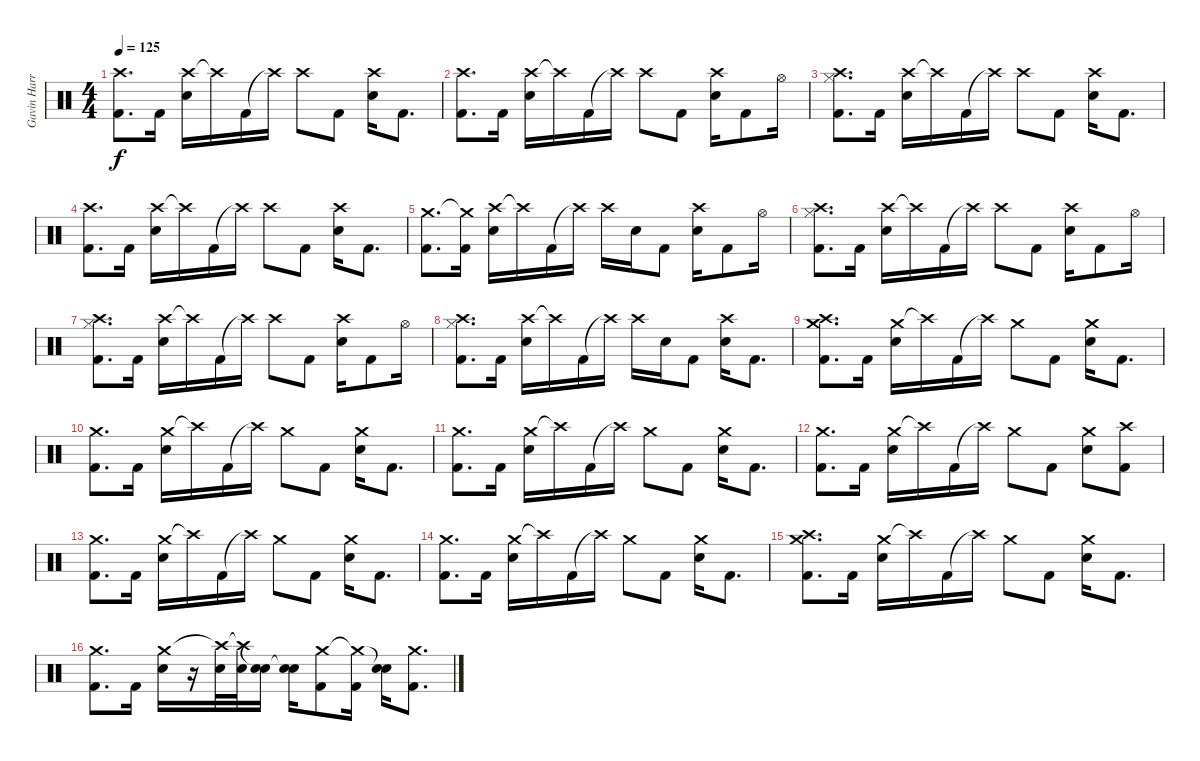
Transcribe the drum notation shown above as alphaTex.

\track ("Gavin Harrison" "Gavin Harr") {instrument percussion}
\staff {score}
\articulation defaults
\ts (4 4)
\tempo 125
\clef neutral
\ks c
("Crash high (hit)" "Kick (hit) 2").8{d dy f} "Kick (hit) 2".16 ("Crash high (hit)" "Electric Snare (hit)").16 "Crash high (hit)"{t}.16 "Kick (hit) 2".16 "Crash high (hit)"{t}.16 "Crash high (hit)".8 "Kick (hit) 2".8 ("Crash high (hit)" "Electric Snare (hit)").16 "Kick (hit) 2".8{d} |
("Crash high (hit)" "Kick (hit) 2").8{d} "Kick (hit) 2".16 ("Crash high (hit)" "Electric Snare (hit)").16 "Crash high (hit)"{t}.16 "Kick (hit) 2".16 "Crash high (hit)"{t}.16 "Crash high (hit)".8 "Kick (hit) 2".8 ("Crash high (hit)" "Electric Snare (hit)").16 "Kick (hit) 2".8 "Hi-Hat (open)".16 |
("Crash high (hit)" "Hi-Hat (closed)" "Kick (hit) 2").8{d} "Kick (hit) 2".16 ("Crash high (hit)" "Electric Snare (hit)").16 "Crash high (hit)"{t}.16 "Kick (hit) 2".16 "Crash high (hit)"{t}.16 "Crash high (hit)".8 "Kick (hit) 2".8 ("Crash high (hit)" "Electric Snare (hit)").16 "Kick (hit) 2".8{d} |
("Crash high (hit)" "Kick (hit) 2").8{d} "Kick (hit) 2".16 ("Crash high (hit)" "Electric Snare (hit)").16 "Crash high (hit)"{t}.16 "Kick (hit) 2".16 "Crash high (hit)"{t}.16 "Crash high (hit)".8 "Kick (hit) 2".8 ("Crash high (hit)" "Electric Snare (hit)").16 "Kick (hit) 2".8{d} |
("Crash medium (hit)" "Kick (hit) 2").8{d} ("Crash medium (hit)"{t} "Kick (hit) 2").16 ("Crash high (hit)" "Electric Snare (hit)").16 "Crash high (hit)"{t}.16 "Kick (hit) 2".16 "Crash high (hit)"{t}.16 "Crash high (hit)".16 "Electric Snare (hit)".16 "Kick (hit) 2".8 ("Crash high (hit)" "Electric Snare (hit)").16 "Kick (hit) 2".8 "Hi-Hat (open)".16 |
("Crash high (hit)" "Hi-Hat (closed)" "Kick (hit) 2").8{d} "Kick (hit) 2".16 ("Crash high (hit)" "Electric Snare (hit)").16 "Crash high (hit)"{t}.16 "Kick (hit) 2".16 "Crash high (hit)"{t}.16 "Crash high (hit)".8 "Kick (hit) 2".8 ("Crash high (hit)" "Electric Snare (hit)").16 "Kick (hit) 2".8 "Hi-Hat (open)".16 |
("Crash high (hit)" "Hi-Hat (closed)" "Kick (hit) 2").8{d} "Kick (hit) 2".16 ("Crash high (hit)" "Electric Snare (hit)").16 "Crash high (hit)"{t}.16 "Kick (hit) 2".16 "Crash high (hit)"{t}.16 "Crash high (hit)".8 "Kick (hit) 2".8 ("Crash high (hit)" "Electric Snare (hit)").16 "Kick (hit) 2".8 "Hi-Hat (open)".16 |
("Crash high (hit)" "Hi-Hat (closed)" "Kick (hit) 2").8{d} "Kick (hit) 2".16 ("Crash high (hit)" "Electric Snare (hit)").16 "Crash high (hit)"{t}.16 "Kick (hit) 2".16 "Crash high (hit)"{t}.16 "Crash high (hit)".16 "Electric Snare (hit)".16 "Kick (hit) 2".8 ("Crash high (hit)" "Electric Snare (hit)").16 "Kick (hit) 2".8{d} |
("Crash medium (hit)" "Crash high (hit)" "Kick (hit) 2").8{d} "Kick (hit) 2".16 ("Crash medium (hit)" "Electric Snare (hit)").16 "Crash high (hit)"{t}.16 "Kick (hit) 2".16 "Crash high (hit)"{t}.16 "Crash medium (hit)".8 "Kick (hit) 2".8 ("Crash medium (hit)" "Electric Snare (hit)").16 "Kick (hit) 2".8{d} |
("Crash medium (hit)" "Kick (hit) 2").8{d} "Kick (hit) 2".16 ("Crash medium (hit)" "Electric Snare (hit)").16 "Crash high (hit)"{t}.16 "Kick (hit) 2".16 "Crash high (hit)"{t}.16 "Crash medium (hit)".8 "Kick (hit) 2".8 ("Crash medium (hit)" "Electric Snare (hit)").16 "Kick (hit) 2".8{d} |
("Crash medium (hit)" "Kick (hit) 2").8{d} "Kick (hit) 2".16 ("Crash medium (hit)" "Electric Snare (hit)").16 "Crash high (hit)"{t}.16 "Kick (hit) 2".16 "Crash high (hit)"{t}.16 "Crash medium (hit)".8 "Kick (hit) 2".8 ("Crash medium (hit)" "Electric Snare (hit)").16 "Kick (hit) 2".8{d} |
("Crash medium (hit)" "Kick (hit) 2").8{d} "Kick (hit) 2".16 ("Crash medium (hit)" "Electric Snare (hit)").16 "Crash high (hit)"{t}.16 "Kick (hit) 2".16 "Crash high (hit)"{t}.16 "Crash medium (hit)".8 "Kick (hit) 2".8 ("Crash medium (hit)" "Electric Snare (hit)").8 ("Crash high (hit)" "Kick (hit) 2").8 |
("Crash medium (hit)" "Kick (hit) 2").8{d} "Kick (hit) 2".16 ("Crash medium (hit)" "Electric Snare (hit)").16 "Crash high (hit)"{t}.16 "Kick (hit) 2".16 "Crash high (hit)"{t}.16 "Crash medium (hit)".8 "Kick (hit) 2".8 ("Crash medium (hit)" "Electric Snare (hit)").16 "Kick (hit) 2".8{d} |
("Crash medium (hit)" "Kick (hit) 2").8{d} "Kick (hit) 2".16 ("Crash medium (hit)" "Electric Snare (hit)").16 "Crash high (hit)"{t}.16 "Kick (hit) 2".16 "Crash high (hit)"{t}.16 "Crash medium (hit)".8 "Kick (hit) 2".8 ("Crash medium (hit)" "Electric Snare (hit)").16 "Kick (hit) 2".8{d} |
("Crash high (hit)" "Crash medium (hit)" "Kick (hit) 2").8{d} "Kick (hit) 2".16 ("Crash medium (hit)" "Electric Snare (hit)").16 "Crash high (hit)"{t}.16 "Kick (hit) 2".16 "Crash high (hit)"{t}.16 "Crash medium (hit)".8 "Kick (hit) 2".8 ("Crash medium (hit)" "Electric Snare (hit)").16 "Kick (hit) 2".8{d} |
("Crash medium (hit)" "Kick (hit) 2").8{d} "Kick (hit) 2".16 ("Crash medium (hit)" "Electric Snare (hit)").16 r.16 ("Crash high (hit)"{t} "Electric Snare (hit)").32 ("Crash high (hit)"{t} "Electric Snare (hit)").32 ("Snare (hit)"{t} "Electric Snare (hit)").16 ("Snare (hit)"{t} "Electric Snare (hit)").16 ("Crash medium (hit)" "Kick (hit) 2").8 ("Crash medium (hit)"{t} "Kick (hit) 2").16 ("Snare (hit)"{t} "Electric Snare (hit)").16 ("Crash medium (hit)" "Kick (hit) 2").8{d}
